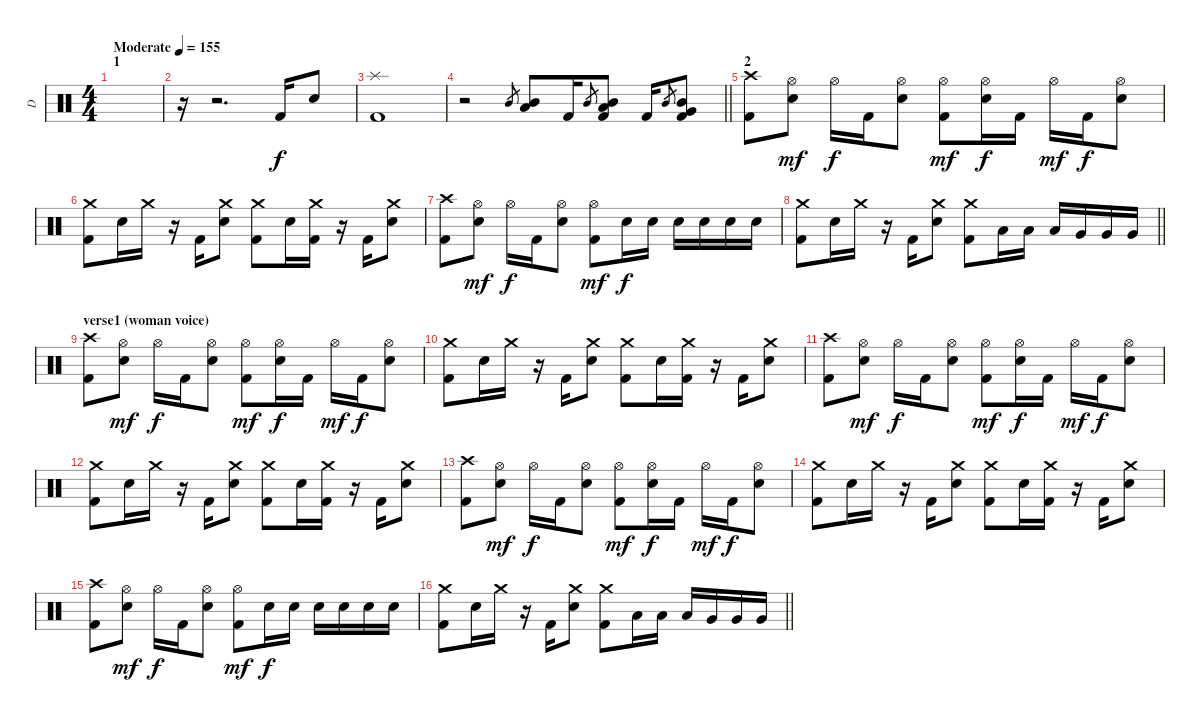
\track ("D" "D") {instrument percussion}
\staff {score}
\articulation defaults
\ts (4 4)
\section ("" "1")
\tempo (155 "Moderate")
\clef neutral
\ks c
|
r.16 r.2{d} "Kick (hit) 2".16 "Electric Snare (hit)".8 |
("Splash (hit)" "Kick (hit) 2").1 |
\barLineRight lightlight
r.2 "Mid Tom (hit)".8{gr} ("Low Tom (hit)" "Mid Tom (hit)").8 "Kick (hit) 2".16 "Mid Tom (hit)".8{gr} ("Kick (hit) 2" "Low Tom (hit)" "Mid Tom (hit)").8 "Kick (hit) 2".16 "Mid Tom (hit)".8{gr} ("Kick (hit) 2" "Very Low Tom (hit)" "Mid Tom (hit)").8 |
\section ("" "2")
("Kick (hit) 2" "Crash high (hit)").8 ("Electric Snare (hit)" "Hi-Hat (open)").8{dy mf} "Hi-Hat (open)".16{dy f} "Kick (hit) 2".16 ("Electric Snare (hit)" "Hi-Hat (open)").8 ("Kick (hit) 2" "Hi-Hat (open)").8{dy mf} ("Electric Snare (hit)" "Hi-Hat (open)").16{dy f} "Kick (hit) 2".16 "Hi-Hat (open)".16{dy mf} "Kick (hit) 2".16{dy f} ("Electric Snare (hit)" "Hi-Hat (open)").8 |
("Kick (hit) 2" "Crash medium (hit)").8 "Electric Snare (hit)".16 "Crash medium (hit)".16 r.16 "Kick (hit) 2".16 ("Electric Snare (hit)" "Crash medium (hit)").8 ("Kick (hit) 2" "Crash medium (hit)").8 "Electric Snare (hit)".16 ("Kick (hit) 2" "Crash medium (hit)").16 r.16 "Kick (hit) 2".16 ("Electric Snare (hit)" "Crash medium (hit)").8 |
("Kick (hit) 2" "Crash high (hit)").8 ("Electric Snare (hit)" "Hi-Hat (open)").8{dy mf} "Hi-Hat (open)".16{dy f} "Kick (hit) 2".16 ("Electric Snare (hit)" "Hi-Hat (open)").8 ("Kick (hit) 2" "Hi-Hat (open)").8{dy mf} "Electric Snare (hit)".16{dy f} "Electric Snare (hit)".16 "Electric Snare (hit)".16 "Electric Snare (hit)".16 "Electric Snare (hit)".16 "Electric Snare (hit)".16 |
\barLineRight lightlight
("Kick (hit) 2" "Crash medium (hit)").8 "Electric Snare (hit)".16 "Crash medium (hit)".16 r.16 "Kick (hit) 2".16 ("Electric Snare (hit)" "Crash medium (hit)").8 ("Kick (hit) 2" "Crash medium (hit)").8 "Low Tom (hit)".16 "Low Tom (hit)".16 "Low Tom (hit)".16 "Very Low Tom (hit)".16 "Very Low Tom (hit)".16 "Very Low Tom (hit)".16 |
\section ("" "verse1 (woman voice)")
("Kick (hit) 2" "Crash high (hit)").8 ("Electric Snare (hit)" "Hi-Hat (open)").8{dy mf} "Hi-Hat (open)".16{dy f} "Kick (hit) 2".16 ("Electric Snare (hit)" "Hi-Hat (open)").8 ("Kick (hit) 2" "Hi-Hat (open)").8{dy mf} ("Electric Snare (hit)" "Hi-Hat (open)").16{dy f} "Kick (hit) 2".16 "Hi-Hat (open)".16{dy mf} "Kick (hit) 2".16{dy f} ("Electric Snare (hit)" "Hi-Hat (open)").8 |
("Kick (hit) 2" "Crash medium (hit)").8 "Electric Snare (hit)".16 "Crash medium (hit)".16 r.16 "Kick (hit) 2".16 ("Electric Snare (hit)" "Crash medium (hit)").8 ("Kick (hit) 2" "Crash medium (hit)").8 "Electric Snare (hit)".16 ("Kick (hit) 2" "Crash medium (hit)").16 r.16 "Kick (hit) 2".16 ("Electric Snare (hit)" "Crash medium (hit)").8 |
("Kick (hit) 2" "Crash high (hit)").8 ("Electric Snare (hit)" "Hi-Hat (open)").8{dy mf} "Hi-Hat (open)".16{dy f} "Kick (hit) 2".16 ("Electric Snare (hit)" "Hi-Hat (open)").8 ("Kick (hit) 2" "Hi-Hat (open)").8{dy mf} ("Electric Snare (hit)" "Hi-Hat (open)").16{dy f} "Kick (hit) 2".16 "Hi-Hat (open)".16{dy mf} "Kick (hit) 2".16{dy f} ("Electric Snare (hit)" "Hi-Hat (open)").8 |
("Kick (hit) 2" "Crash medium (hit)").8 "Electric Snare (hit)".16 "Crash medium (hit)".16 r.16 "Kick (hit) 2".16 ("Electric Snare (hit)" "Crash medium (hit)").8 ("Kick (hit) 2" "Crash medium (hit)").8 "Electric Snare (hit)".16 ("Kick (hit) 2" "Crash medium (hit)").16 r.16 "Kick (hit) 2".16 ("Electric Snare (hit)" "Crash medium (hit)").8 |
("Kick (hit) 2" "Crash high (hit)").8 ("Electric Snare (hit)" "Hi-Hat (open)").8{dy mf} "Hi-Hat (open)".16{dy f} "Kick (hit) 2".16 ("Electric Snare (hit)" "Hi-Hat (open)").8 ("Kick (hit) 2" "Hi-Hat (open)").8{dy mf} ("Electric Snare (hit)" "Hi-Hat (open)").16{dy f} "Kick (hit) 2".16 "Hi-Hat (open)".16{dy mf} "Kick (hit) 2".16{dy f} ("Electric Snare (hit)" "Hi-Hat (open)").8 |
("Kick (hit) 2" "Crash medium (hit)").8 "Electric Snare (hit)".16 "Crash medium (hit)".16 r.16 "Kick (hit) 2".16 ("Electric Snare (hit)" "Crash medium (hit)").8 ("Kick (hit) 2" "Crash medium (hit)").8 "Electric Snare (hit)".16 ("Kick (hit) 2" "Crash medium (hit)").16 r.16 "Kick (hit) 2".16 ("Electric Snare (hit)" "Crash medium (hit)").8 |
("Kick (hit) 2" "Crash high (hit)").8 ("Electric Snare (hit)" "Hi-Hat (open)").8{dy mf} "Hi-Hat (open)".16{dy f} "Kick (hit) 2".16 ("Electric Snare (hit)" "Hi-Hat (open)").8 ("Kick (hit) 2" "Hi-Hat (open)").8{dy mf} "Electric Snare (hit)".16{dy f} "Electric Snare (hit)".16 "Electric Snare (hit)".16 "Electric Snare (hit)".16 "Electric Snare (hit)".16 "Electric Snare (hit)".16 |
\barLineRight lightlight
("Kick (hit) 2" "Crash medium (hit)").8 "Electric Snare (hit)".16 "Crash medium (hit)".16 r.16 "Kick (hit) 2".16 ("Electric Snare (hit)" "Crash medium (hit)").8 ("Kick (hit) 2" "Crash medium (hit)").8 "Low Tom (hit)".16 "Low Tom (hit)".16 "Low Tom (hit)".16 "Very Low Tom (hit)".16 "Very Low Tom (hit)".16 "Very Low Tom (hit)".16
